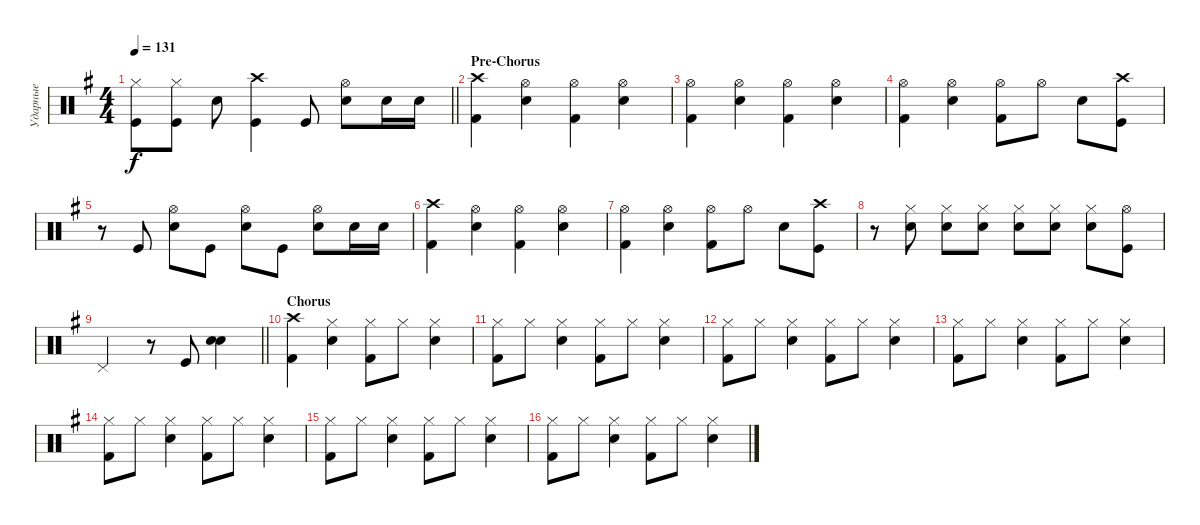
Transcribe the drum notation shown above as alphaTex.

\track ("Ударные" "Ударные") {instrument percussion}
\staff {score}
\articulation defaults
\ts (4 4)
\tempo 131
\clef neutral
\barLineRight lightlight
\ks eminor
("Kick (hit)" "Hi-Hat (closed)").8{dy f} ("Kick (hit)" "Hi-Hat (closed)").8 "Snare (hit) 2".8 ("Crash high (hit)" "Kick (hit)").4 "Kick (hit)".8 ("Snare (hit) 2" "Hi-Hat (open)").8 "Snare (hit) 2".16 "Snare (hit) 2".16 |
\section ("" "Pre-Chorus")
("Crash high (hit)" "Kick (hit) 2").4 ("Hi-Hat (open)" "Snare (hit) 2").4 ("Hi-Hat (open)" "Kick (hit) 2").4 ("Hi-Hat (open)" "Snare (hit) 2").4 |
("Hi-Hat (open)" "Kick (hit) 2").4 ("Hi-Hat (open)" "Snare (hit) 2").4 ("Hi-Hat (open)" "Kick (hit) 2").4 ("Hi-Hat (open)" "Snare (hit) 2").4 |
("Hi-Hat (open)" "Kick (hit) 2").4 ("Hi-Hat (open)" "Snare (hit) 2").4 ("Hi-Hat (open)" "Kick (hit) 2").8 "Hi-Hat (open)".8 "Snare (hit) 2".8 ("Kick (hit)" "Crash high (hit)").8 |
r.8 "Kick (hit)".8 ("Hi-Hat (open)" "Snare (hit) 2").8 "Kick (hit)".8 ("Hi-Hat (open)" "Snare (hit) 2").8 "Kick (hit)".8 ("Hi-Hat (open)" "Snare (hit) 2").8 "Snare (hit) 2".16 "Snare (hit) 2".16 |
("Crash high (hit)" "Kick (hit) 2").4 ("Hi-Hat (open)" "Snare (hit) 2").4 ("Hi-Hat (open)" "Kick (hit) 2").4 ("Hi-Hat (open)" "Snare (hit) 2").4 |
("Hi-Hat (open)" "Kick (hit) 2").4 ("Hi-Hat (open)" "Snare (hit) 2").4 ("Hi-Hat (open)" "Kick (hit) 2").8 "Hi-Hat (open)".8 "Snare (hit) 2".8 ("Kick (hit)" "Crash high (hit)").8 |
r.8 ("Snare (hit) 2" "Hi-Hat (closed)").8 ("Snare (hit) 2" "Hi-Hat (closed)").8 ("Snare (hit) 2" "Hi-Hat (closed)").8 ("Snare (hit) 2" "Hi-Hat (closed)").8 ("Snare (hit) 2" "Hi-Hat (closed)").8 ("Snare (hit) 2" "Hi-Hat (closed)").8 ("Kick (hit)" "Hi-Hat (open)").8 |
\barLineRight lightlight "Pedal Hi-Hat (hit)".2
r.8 "Kick (hit)".8 ("Snare (hit) 2" "Snare (hit) 2").4{bd 480} |
\section ("" "Chorus")
("Crash high (hit)" "Kick (hit) 2").4 ("Hi-Hat (closed)" "Snare (hit) 2").4 ("Hi-Hat (closed)" "Kick (hit) 2").8 "Hi-Hat (closed)".8 ("Snare (hit) 2" "Hi-Hat (closed)").4 |
("Hi-Hat (closed)" "Kick (hit) 2").8 "Hi-Hat (closed)".8 ("Snare (hit) 2" "Hi-Hat (closed)").4 ("Hi-Hat (closed)" "Kick (hit) 2").8 "Hi-Hat (closed)".8 ("Snare (hit) 2" "Hi-Hat (closed)").4 |
("Hi-Hat (closed)" "Kick (hit) 2").8 "Hi-Hat (closed)".8 ("Snare (hit) 2" "Hi-Hat (closed)").4 ("Hi-Hat (closed)" "Kick (hit) 2").8 "Hi-Hat (closed)".8 ("Snare (hit) 2" "Hi-Hat (closed)").4 |
("Hi-Hat (closed)" "Kick (hit) 2").8 "Hi-Hat (closed)".8 ("Hi-Hat (closed)" "Snare (hit) 2").4 ("Hi-Hat (closed)" "Kick (hit) 2").8 "Hi-Hat (closed)".8 ("Hi-Hat (closed)" "Snare (hit) 2").4 |
("Hi-Hat (closed)" "Kick (hit) 2").8 "Hi-Hat (closed)".8 ("Hi-Hat (closed)" "Snare (hit) 2").4 ("Hi-Hat (closed)" "Kick (hit) 2").8 "Hi-Hat (closed)".8 ("Snare (hit) 2" "Hi-Hat (closed)").4 |
("Hi-Hat (closed)" "Kick (hit) 2").8 "Hi-Hat (closed)".8 ("Hi-Hat (closed)" "Snare (hit) 2").4 ("Hi-Hat (closed)" "Kick (hit) 2").8 "Hi-Hat (closed)".8 ("Hi-Hat (closed)" "Snare (hit) 2").4 |
("Hi-Hat (closed)" "Kick (hit) 2").8 "Hi-Hat (closed)".8 ("Hi-Hat (closed)" "Snare (hit) 2").4 ("Hi-Hat (closed)" "Kick (hit) 2").8 "Hi-Hat (closed)".8 ("Hi-Hat (closed)" "Snare (hit) 2").4
